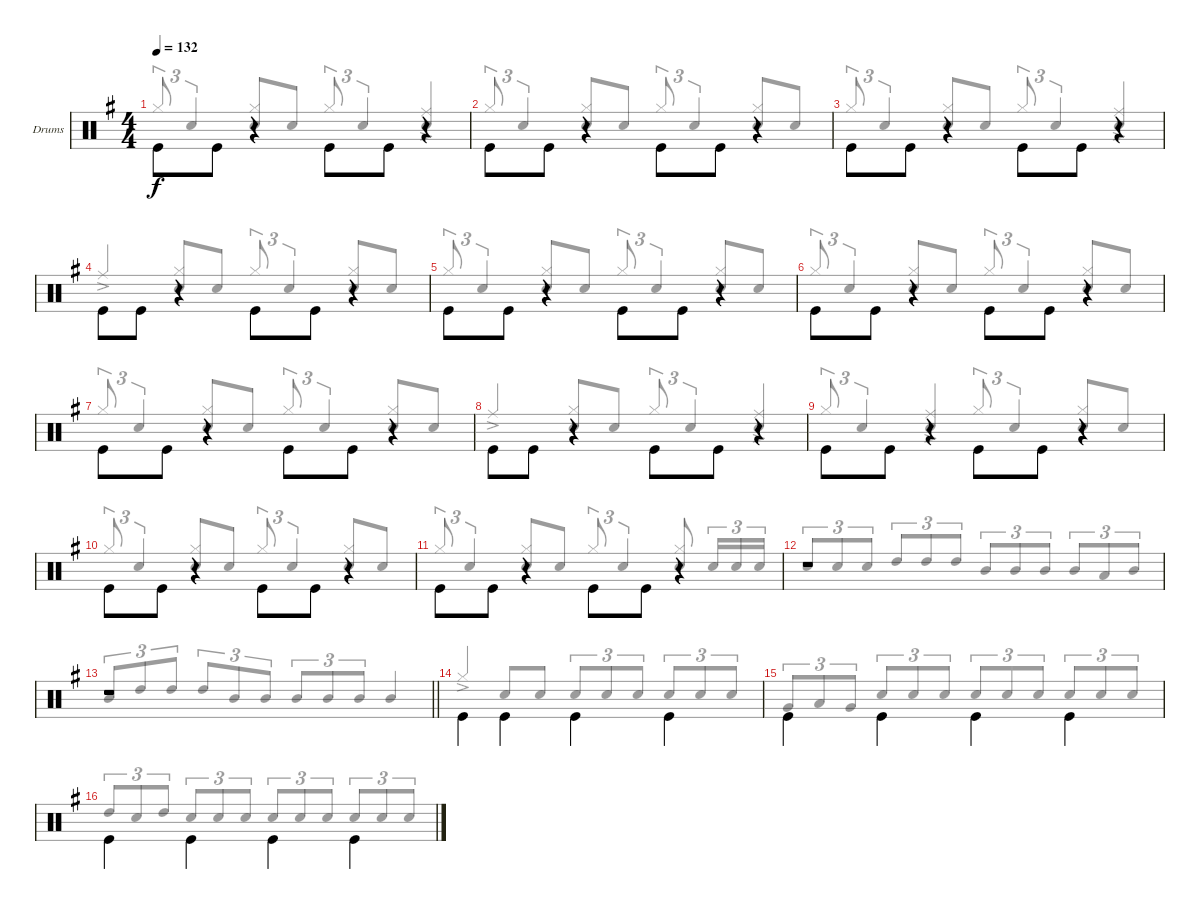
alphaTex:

\bracketExtendMode groupsimilarinstruments
\firstSystemTrackNameOrientation horizontal
\otherSystemsTrackNameOrientation horizontal
\track ("Drums" "Drums") {instrument percussion}
\staff {score}
\articulation defaults
\voice
\ts (4 4)
\tempo 132
\clef neutral
\scale
1.04288
\ks g "Kick (hit)".8{dy f beam invert} "Kick (hit)".8
r.4 "Kick (hit)".8{beam invert} "Kick (hit)".8 r.4 |
\scale
0.957125 "Kick (hit)".8{beam invert} "Kick (hit)".8 r.4 "Kick (hit)".8{beam invert} "Kick (hit)".8 r.4 |
\scale
1.04288 "Kick (hit)".8{beam invert} "Kick (hit)".8 r.4 "Kick (hit)".8{beam invert} "Kick (hit)".8 r.4 |
\scale
0.957125 "Kick (hit)".8{beam invert} "Kick (hit)".8 r.4 "Kick (hit)".8{beam invert} "Kick (hit)".8 r.4 |
\scale
1.04288 "Kick (hit)".8{beam invert} "Kick (hit)".8 r.4 "Kick (hit)".8{beam invert} "Kick (hit)".8 r.4 |
\scale
0.957125 "Kick (hit)".8{beam invert} "Kick (hit)".8 r.4 "Kick (hit)".8{beam invert} "Kick (hit)".8 r.4 |
\scale
1.04288 "Kick (hit)".8{beam invert} "Kick (hit)".8 r.4 "Kick (hit)".8{beam invert} "Kick (hit)".8 r.4 |
\scale
0.957125 "Kick (hit)".8{beam invert} "Kick (hit)".8 r.4 "Kick (hit)".8{beam invert} "Kick (hit)".8 r.4 |
\scale
1.04288 "Kick (hit)".8{beam invert} "Kick (hit)".8 r.4 "Kick (hit)".8{beam invert} "Kick (hit)".8 r.4 |
\scale
0.957125 "Kick (hit)".8{beam invert} "Kick (hit)".8 r.4 "Kick (hit)".8{beam invert} "Kick (hit)".8 r.4 |
\scale
1.04288 "Kick (hit)".8{beam invert} "Kick (hit)".8 r.4 "Kick (hit)".8{beam invert} "Kick (hit)".8 r.4 |
\scale
0.957125 r.1 |
\scale
1.04288
\barLineRight lightlight
r.1 |
\scale
0.957125 "Kick (hit)".4{beam invert} "Kick (hit)".4{beam invert} "Kick (hit)".4{beam invert} "Kick (hit)".4{beam invert} |
\scale
1.04288 "Kick (hit)".4{beam invert} "Kick (hit)".4{beam invert} "Kick (hit)".4{beam invert} "Kick (hit)".4{beam invert} |
\scale
0.957125 "Kick (hit)".4{beam invert} "Kick (hit)".4{beam invert} "Kick (hit)".4{beam invert} "Kick (hit)".4{beam invert}
\voice
\clef neutral
\ottava regular
\simile none
\scale
1.04288
\ks g "Hi-Hat (closed)".8{tu (3 2) dy f beam invert} "Snare (hit) 2".4{tu (3 2) beam invert}
("Hi-Hat (closed)" "Snare (hit) 2").8{beam invert} "Snare (hit) 2".8 "Hi-Hat (closed)".8{tu (3 2) beam invert} "Snare (hit) 2".4{tu (3 2) beam invert} ("Snare (hit) 2" "Ride (middle)"{ac}).4{beam invert} |
\scale
0.957125 "Hi-Hat (closed)".8{tu (3 2) beam invert} "Snare (hit) 2".4{tu (3 2) beam invert} ("Hi-Hat (closed)" "Snare (hit) 2").8{beam invert} "Snare (hit) 2".8 "Hi-Hat (closed)".8{tu (3 2) beam invert} "Snare (hit) 2".4{tu (3 2) beam invert} ("Hi-Hat (closed)" "Snare (hit) 2").8{beam invert} "Snare (hit) 2".8 |
\scale
1.04288 "Hi-Hat (closed)".8{tu (3 2) beam invert} "Snare (hit) 2".4{tu (3 2) beam invert} ("Hi-Hat (closed)" "Snare (hit) 2").8{beam invert} "Snare (hit) 2".8 "Hi-Hat (closed)".8{tu (3 2) beam invert} "Snare (hit) 2".4{tu (3 2) beam invert} ("Snare (hit) 2" "Ride (middle)"{ac}).4{beam invert} |
\scale
0.957125 "Ride (middle)"{ac}.4{beam invert} ("Hi-Hat (closed)" "Snare (hit) 2").8{beam invert} "Snare (hit) 2".8 "Hi-Hat (closed)".8{tu (3 2) beam invert} "Snare (hit) 2".4{tu (3 2) beam invert} ("Hi-Hat (closed)" "Snare (hit) 2").8{beam invert} "Snare (hit) 2".8 |
\scale
1.04288 "Hi-Hat (closed)".8{tu (3 2) beam invert} "Snare (hit) 2".4{tu (3 2) beam invert} ("Hi-Hat (closed)" "Snare (hit) 2").8{beam invert} "Snare (hit) 2".8 "Hi-Hat (closed)".8{tu (3 2) beam invert} "Snare (hit) 2".4{tu (3 2) beam invert} ("Hi-Hat (closed)" "Snare (hit) 2").8{beam invert} "Snare (hit) 2".8 |
\scale
0.957125 "Hi-Hat (closed)".8{tu (3 2) beam invert} "Snare (hit) 2".4{tu (3 2) beam invert} ("Hi-Hat (closed)" "Snare (hit) 2").8{beam invert} "Snare (hit) 2".8 "Hi-Hat (closed)".8{tu (3 2) beam invert} "Snare (hit) 2".4{tu (3 2) beam invert} ("Hi-Hat (closed)" "Snare (hit) 2").8{beam invert} "Snare (hit) 2".8 |
\scale
1.04288 "Hi-Hat (closed)".8{tu (3 2) beam invert} "Snare (hit) 2".4{tu (3 2) beam invert} ("Hi-Hat (closed)" "Snare (hit) 2").8{beam invert} "Snare (hit) 2".8 "Hi-Hat (closed)".8{tu (3 2) beam invert} "Snare (hit) 2".4{tu (3 2) beam invert} ("Hi-Hat (closed)" "Snare (hit) 2").8{beam invert} "Snare (hit) 2".8 |
\scale
0.957125 "Ride (middle)"{ac}.4{beam invert} ("Hi-Hat (closed)" "Snare (hit) 2").8{beam invert} "Snare (hit) 2".8 "Hi-Hat (closed)".8{tu (3 2) beam invert} "Snare (hit) 2".4{tu (3 2) beam invert} ("Snare (hit) 2" "Ride (middle)"{ac}).4{beam invert} |
\scale
1.04288 "Hi-Hat (closed)".8{tu (3 2) beam invert} "Snare (hit) 2".4{tu (3 2) beam invert} ("Snare (hit) 2" "Ride (middle)"{ac}).4{beam invert} "Hi-Hat (closed)".8{tu (3 2) beam invert} "Snare (hit) 2".4{tu (3 2) beam invert} ("Hi-Hat (closed)" "Snare (hit) 2").8{beam invert} "Snare (hit) 2".8 |
\scale
0.957125 "Hi-Hat (closed)".8{tu (3 2) beam invert} "Snare (hit) 2".4{tu (3 2) beam invert} ("Hi-Hat (closed)" "Snare (hit) 2").8{beam invert} "Snare (hit) 2".8 "Hi-Hat (closed)".8{tu (3 2) beam invert} "Snare (hit) 2".4{tu (3 2) beam invert} ("Hi-Hat (closed)" "Snare (hit) 2").8{beam invert} "Snare (hit) 2".8 |
\scale
1.04288 "Hi-Hat (closed)".8{tu (3 2) beam invert} "Snare (hit) 2".4{tu (3 2) beam invert} ("Hi-Hat (closed)" "Snare (hit) 2").8{beam invert} "Snare (hit) 2".8 "Hi-Hat (closed)".8{tu (3 2) beam invert} "Snare (hit) 2".4{tu (3 2) beam invert} ("Hi-Hat (closed)" "Snare (hit) 2").8{beam invert} "Snare (hit) 2".16{tu (3 2)} "Snare (hit) 2".16{tu (3 2)} "Snare (hit) 2".16{tu (3 2) beam invert} |
\scale
0.957125 "Snare (hit) 2".8{tu (3 2) beam invert} "Snare (hit) 2".8{tu (3 2) beam invert} "Snare (hit) 2".8{tu (3 2) beam invert} "High Tom (hit)".8{tu (3 2) beam invert} "High Tom (hit)".8{tu (3 2) beam invert} "High Tom (hit)".8{tu (3 2) beam invert} "Mid Tom (hit)".8{tu (3 2) beam invert} "Mid Tom (hit)".8{tu (3 2) beam invert} "Mid Tom (hit)".8{tu (3 2) beam invert} "Mid Tom (hit)".8{tu (3 2) beam invert} "Low Tom (hit)".8{tu (3 2)} "Mid Tom (hit)".8{tu (3 2)} |
\scale
1.04288
\barLineRight lightlight "Mid Tom (hit)".8{tu (3 2) beam invert} "High Tom (hit)".8{tu (3 2)} "High Tom (hit)".8{tu (3 2)} "High Tom (hit)".8{tu (3 2) beam invert} "Mid Tom (hit)".8{tu (3 2)} "Mid Tom (hit)".8{tu (3 2)} "Mid Tom (hit)".8{tu (3 2) beam invert} "Mid Tom (hit)".8{tu (3 2) beam invert} "Mid Tom (hit)".8{tu (3 2) beam invert} "Mid Tom (hit)".4{beam invert}
|
\scale
0.957125 "Hi-Hat (closed)"{ac}.4{beam invert} "Snare (hit) 2".8{beam invert} "Snare (hit) 2".8 "Snare (hit) 2".8{tu (3 2) beam invert} "Snare (hit) 2".8{tu (3 2) beam invert} "Snare (hit) 2".8{tu (3 2) beam invert} "Snare (hit) 2".8{tu (3 2) beam invert} "Snare (hit) 2".8{tu (3 2) beam invert} "Snare (hit) 2".8{tu (3 2) beam invert} |
\scale
1.04288 "Very Low Tom (hit)".8{tu (3 2) beam invert} "Low Tom (hit)".8{tu (3 2)} "Very Low Tom (hit)".8{tu (3 2)} "Snare (hit) 2".8{tu (3 2) beam invert} "Snare (hit) 2".8{tu (3 2) beam invert} "Snare (hit) 2".8{tu (3 2) beam invert} "Snare (hit) 2".8{tu (3 2) beam invert} "Snare (hit) 2".8{tu (3 2) beam invert} "Snare (hit) 2".8{tu (3 2) beam invert} "Snare (hit) 2".8{tu (3 2) beam invert} "Snare (hit) 2".8{tu (3 2) beam invert} "Snare (hit) 2".8{tu (3 2) beam invert} |
\scale
0.957125 "High Tom (hit)".8{tu (3 2) beam invert} "Snare (hit) 2".8{tu (3 2)} "High Tom (hit)".8{tu (3 2)} "Snare (hit) 2".8{tu (3 2) beam invert} "Snare (hit) 2".8{tu (3 2) beam invert} "Snare (hit) 2".8{tu (3 2) beam invert} "Snare (hit) 2".8{tu (3 2) beam invert} "Snare (hit) 2".8{tu (3 2) beam invert} "Snare (hit) 2".8{tu (3 2) beam invert} "Snare (hit) 2".8{tu (3 2) beam invert} "Snare (hit) 2".8{tu (3 2) beam invert} "Snare (hit) 2".8{tu (3 2) beam invert}
